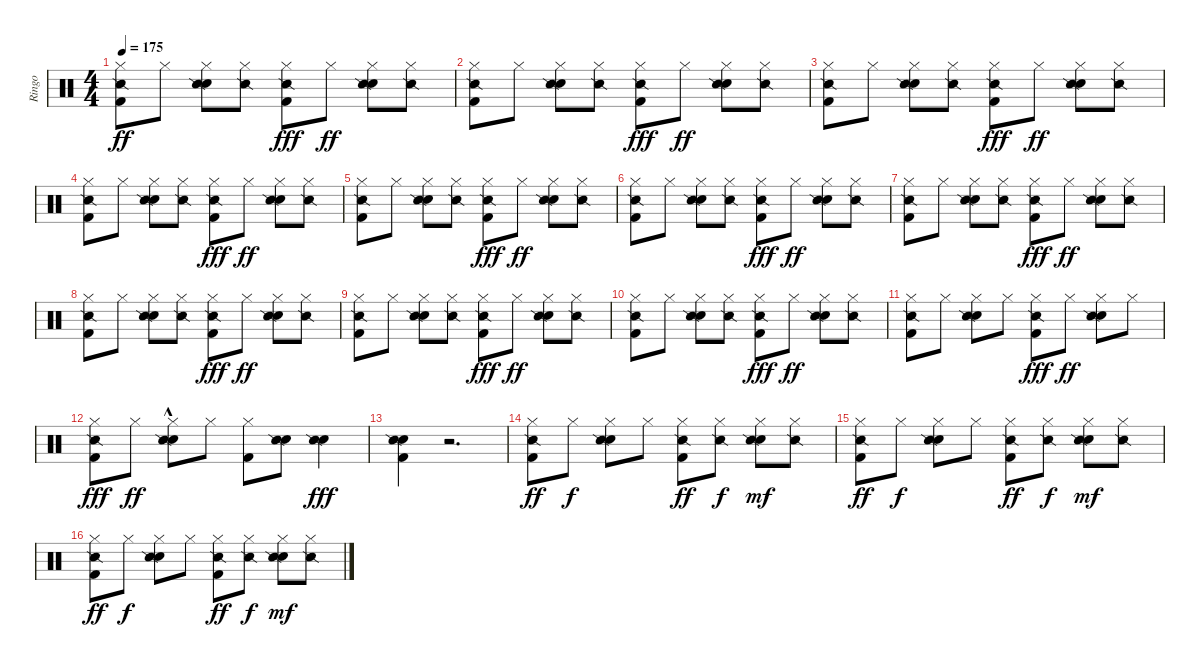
\track ("Ringo" "Ringo") {instrument percussion}
\staff {score}
\articulation defaults
\ts (4 4)
\tempo 175
\clef neutral
\ks c
("Hi-Hat (closed)" "Snare (side stick) 2" "Kick (hit) 2").8{dy ff} "Hi-Hat (closed)".8 ("Hi-Hat (closed)" "Electric Snare (hit)" "Snare (side stick) 2").8 ("Hi-Hat (closed)" "Snare (side stick) 2").8 ("Hi-Hat (closed)" "Snare (side stick) 2" "Kick (hit) 2").8{dy fff} "Hi-Hat (closed)".8{dy ff} ("Hi-Hat (closed)" "Electric Snare (hit)" "Snare (side stick) 2").8 ("Hi-Hat (closed)" "Snare (side stick) 2").8 |
("Hi-Hat (closed)" "Snare (side stick) 2" "Kick (hit) 2").8 "Hi-Hat (closed)".8 ("Hi-Hat (closed)" "Electric Snare (hit)" "Snare (side stick) 2").8 ("Hi-Hat (closed)" "Snare (side stick) 2").8 ("Hi-Hat (closed)" "Snare (side stick) 2" "Kick (hit) 2").8{dy fff} "Hi-Hat (closed)".8{dy ff} ("Hi-Hat (closed)" "Electric Snare (hit)" "Snare (side stick) 2").8 ("Hi-Hat (closed)" "Snare (side stick) 2").8 |
("Hi-Hat (closed)" "Snare (side stick) 2" "Kick (hit) 2").8 "Hi-Hat (closed)".8 ("Hi-Hat (closed)" "Electric Snare (hit)" "Snare (side stick) 2").8 ("Hi-Hat (closed)" "Snare (side stick) 2").8 ("Hi-Hat (closed)" "Snare (side stick) 2" "Kick (hit) 2").8{dy fff} "Hi-Hat (closed)".8{dy ff} ("Hi-Hat (closed)" "Electric Snare (hit)" "Snare (side stick) 2").8 ("Hi-Hat (closed)" "Snare (side stick) 2").8 |
("Hi-Hat (closed)" "Snare (side stick) 2" "Kick (hit) 2").8 "Hi-Hat (closed)".8 ("Hi-Hat (closed)" "Electric Snare (hit)" "Snare (side stick) 2").8 ("Hi-Hat (closed)" "Snare (side stick) 2").8 ("Hi-Hat (closed)" "Snare (side stick) 2" "Kick (hit) 2").8{dy fff} "Hi-Hat (closed)".8{dy ff} ("Hi-Hat (closed)" "Electric Snare (hit)" "Snare (side stick) 2").8 ("Hi-Hat (closed)" "Snare (side stick) 2").8 |
("Hi-Hat (closed)" "Snare (side stick) 2" "Kick (hit) 2").8 "Hi-Hat (closed)".8 ("Hi-Hat (closed)" "Electric Snare (hit)" "Snare (side stick) 2").8 ("Hi-Hat (closed)" "Snare (side stick) 2").8 ("Hi-Hat (closed)" "Snare (side stick) 2" "Kick (hit) 2").8{dy fff} "Hi-Hat (closed)".8{dy ff} ("Hi-Hat (closed)" "Electric Snare (hit)" "Snare (side stick) 2").8 ("Hi-Hat (closed)" "Snare (side stick) 2").8 |
("Hi-Hat (closed)" "Snare (side stick) 2" "Kick (hit) 2").8 "Hi-Hat (closed)".8 ("Hi-Hat (closed)" "Electric Snare (hit)" "Snare (side stick) 2").8 ("Hi-Hat (closed)" "Snare (side stick) 2").8 ("Hi-Hat (closed)" "Snare (side stick) 2" "Kick (hit) 2").8{dy fff} "Hi-Hat (closed)".8{dy ff} ("Hi-Hat (closed)" "Electric Snare (hit)" "Snare (side stick) 2").8 ("Hi-Hat (closed)" "Snare (side stick) 2").8 |
("Hi-Hat (closed)" "Snare (side stick) 2" "Kick (hit) 2").8 "Hi-Hat (closed)".8 ("Hi-Hat (closed)" "Electric Snare (hit)" "Snare (side stick) 2").8 ("Hi-Hat (closed)" "Snare (side stick) 2").8 ("Hi-Hat (closed)" "Snare (side stick) 2" "Kick (hit) 2").8{dy fff} "Hi-Hat (closed)".8{dy ff} ("Hi-Hat (closed)" "Electric Snare (hit)" "Snare (side stick) 2").8 ("Hi-Hat (closed)" "Snare (side stick) 2").8 |
("Hi-Hat (closed)" "Snare (side stick) 2" "Kick (hit) 2").8 "Hi-Hat (closed)".8 ("Hi-Hat (closed)" "Electric Snare (hit)" "Snare (side stick) 2").8 ("Hi-Hat (closed)" "Snare (side stick) 2").8 ("Hi-Hat (closed)" "Snare (side stick) 2" "Kick (hit) 2").8{dy fff} "Hi-Hat (closed)".8{dy ff} ("Hi-Hat (closed)" "Electric Snare (hit)" "Snare (side stick) 2").8 ("Hi-Hat (closed)" "Snare (side stick) 2").8 |
("Hi-Hat (closed)" "Snare (side stick) 2" "Kick (hit) 2").8 "Hi-Hat (closed)".8 ("Hi-Hat (closed)" "Electric Snare (hit)" "Snare (side stick) 2").8 ("Hi-Hat (closed)" "Snare (side stick) 2").8 ("Hi-Hat (closed)" "Snare (side stick) 2" "Kick (hit) 2").8{dy fff} "Hi-Hat (closed)".8{dy ff} ("Hi-Hat (closed)" "Electric Snare (hit)" "Snare (side stick) 2").8 ("Hi-Hat (closed)" "Snare (side stick) 2").8 |
("Hi-Hat (closed)" "Snare (side stick) 2" "Kick (hit) 2").8 "Hi-Hat (closed)".8 ("Hi-Hat (closed)" "Electric Snare (hit)" "Snare (side stick) 2").8 ("Hi-Hat (closed)" "Snare (side stick) 2").8 ("Hi-Hat (closed)" "Snare (side stick) 2" "Kick (hit) 2").8{dy fff} "Hi-Hat (closed)".8{dy ff} ("Hi-Hat (closed)" "Electric Snare (hit)" "Snare (side stick) 2").8 ("Hi-Hat (closed)" "Snare (side stick) 2").8 |
("Hi-Hat (closed)" "Snare (side stick) 2" "Kick (hit) 2").8 "Hi-Hat (closed)".8 ("Hi-Hat (closed)" "Electric Snare (hit)" "Snare (side stick) 2").8 "Hi-Hat (closed)".8 ("Hi-Hat (closed)" "Snare (side stick) 2" "Kick (hit) 2").8{dy fff} "Hi-Hat (closed)".8{dy ff} ("Hi-Hat (closed)" "Electric Snare (hit)" "Snare (side stick) 2").8 "Hi-Hat (closed)".8 |
("Hi-Hat (closed)" "Snare (side stick) 2" "Kick (hit) 2").8{dy fff} "Hi-Hat (closed)".8{dy ff} ("Hi-Hat (closed)" "Electric Snare (hit)"{hac} "Snare (side stick) 2").8 "Hi-Hat (closed)".8 ("Hi-Hat (closed)" "Kick (hit) 2").8 ("Electric Snare (hit)" "Snare (side stick) 2").8 ("Electric Snare (hit)" "Snare (side stick) 2").4{dy fff} |
("Electric Snare (hit)" "Snare (side stick) 2" "Kick (hit) 2").4 r.2{d} |
("Hi-Hat (closed)" "Snare (side stick) 2" "Kick (hit) 2").8{dy ff} "Hi-Hat (closed)".8{dy f} ("Hi-Hat (closed)" "Electric Snare (hit)" "Snare (side stick) 2").8 "Hi-Hat (closed)".8 ("Hi-Hat (closed)" "Snare (side stick) 2" "Kick (hit) 2").8{dy ff} ("Hi-Hat (closed)" "Snare (side stick) 2").8{dy f} ("Hi-Hat (closed)" "Electric Snare (hit)" "Snare (side stick) 2").8{dy mf} ("Hi-Hat (closed)" "Snare (side stick) 2").8 |
("Hi-Hat (closed)" "Snare (side stick) 2" "Kick (hit) 2").8{dy ff} "Hi-Hat (closed)".8{dy f} ("Hi-Hat (closed)" "Electric Snare (hit)" "Snare (side stick) 2").8 "Hi-Hat (closed)".8 ("Hi-Hat (closed)" "Snare (side stick) 2" "Kick (hit) 2").8{dy ff} ("Hi-Hat (closed)" "Snare (side stick) 2").8{dy f} ("Hi-Hat (closed)" "Electric Snare (hit)" "Snare (side stick) 2").8{dy mf} ("Hi-Hat (closed)" "Snare (side stick) 2").8 |
("Hi-Hat (closed)" "Snare (side stick) 2" "Kick (hit) 2").8{dy ff} "Hi-Hat (closed)".8{dy f} ("Hi-Hat (closed)" "Electric Snare (hit)" "Snare (side stick) 2").8 "Hi-Hat (closed)".8 ("Hi-Hat (closed)" "Snare (side stick) 2" "Kick (hit) 2").8{dy ff} ("Hi-Hat (closed)" "Snare (side stick) 2").8{dy f} ("Hi-Hat (closed)" "Electric Snare (hit)" "Snare (side stick) 2").8{dy mf} ("Hi-Hat (closed)" "Snare (side stick) 2").8
